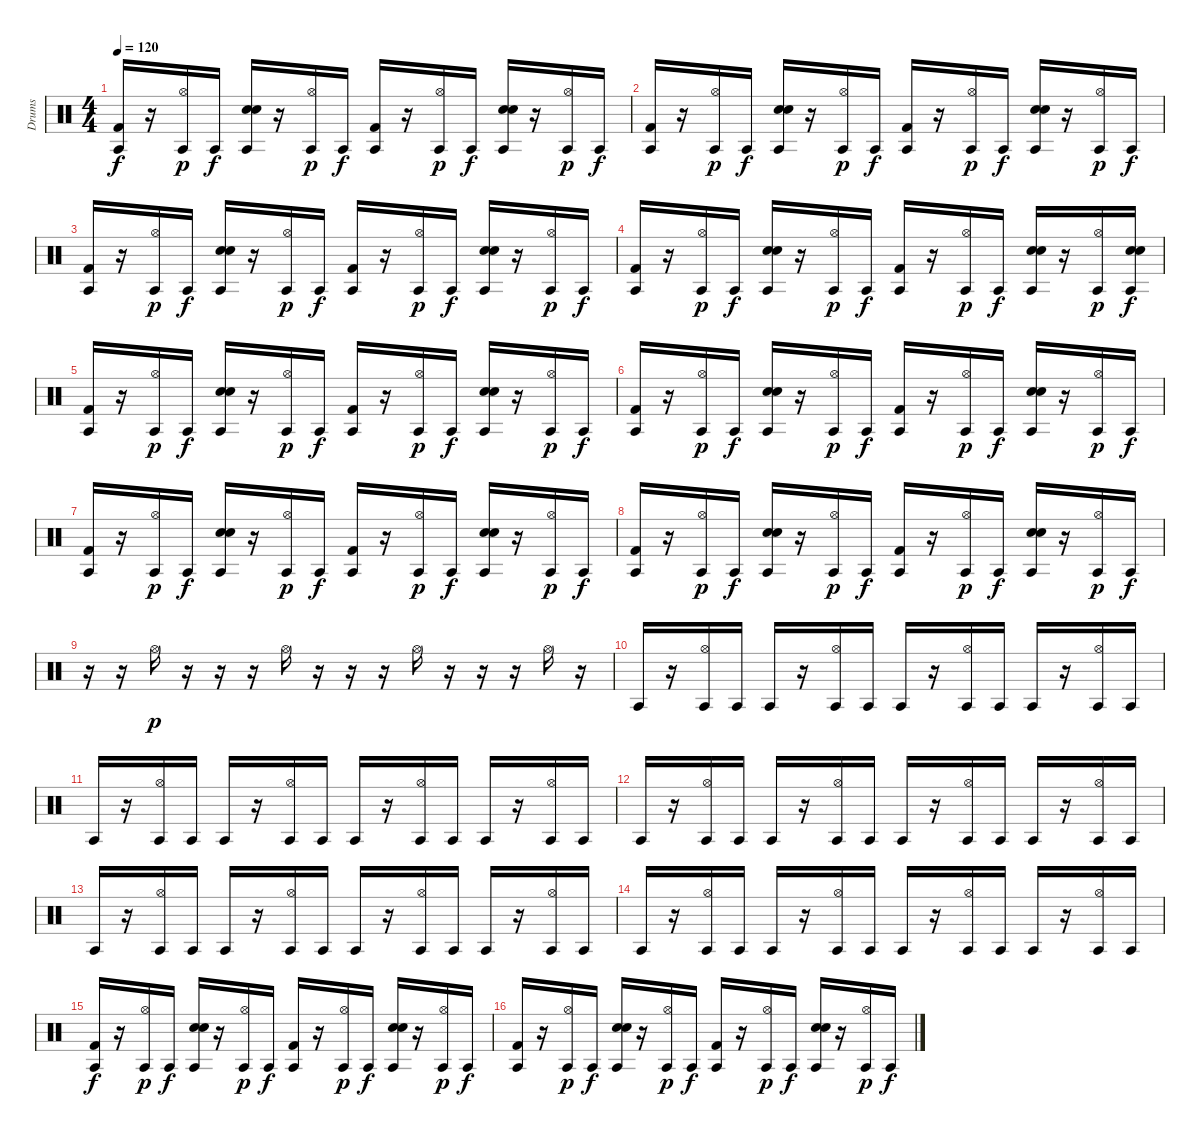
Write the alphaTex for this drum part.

\track ("Drums" "Drums") {instrument percussion}
\staff {score}
\articulation defaults
\ts (4 4)
\tempo 120
\clef neutral
\ks c
("Kick (hit) 2" "Agogo tow (hit)").16{dy f} r.16 ("Agogo tow (hit)" "Hi-Hat (open)").16{dy p} "Agogo tow (hit)".16{dy f} ("Snare (hit) 2" "Hand Clap (hit)" "Agogo tow (hit)").16 r.16 ("Agogo tow (hit)" "Hi-Hat (open)").16{dy p} "Agogo tow (hit)".16{dy f} ("Kick (hit) 2" "Agogo tow (hit)").16 r.16 ("Hi-Hat (open)" "Agogo tow (hit)").16{dy p} "Agogo tow (hit)".16{dy f} ("Snare (hit) 2" "Hand Clap (hit)" "Agogo tow (hit)").16 r.16 ("Hi-Hat (open)" "Agogo tow (hit)").16{dy p} "Agogo tow (hit)".16{dy f} |
("Kick (hit) 2" "Agogo tow (hit)").16 r.16 ("Agogo tow (hit)" "Hi-Hat (open)").16{dy p} "Agogo tow (hit)".16{dy f} ("Snare (hit) 2" "Hand Clap (hit)" "Agogo tow (hit)").16 r.16 ("Agogo tow (hit)" "Hi-Hat (open)").16{dy p} "Agogo tow (hit)".16{dy f} ("Kick (hit) 2" "Agogo tow (hit)").16 r.16 ("Hi-Hat (open)" "Agogo tow (hit)").16{dy p} "Agogo tow (hit)".16{dy f} ("Snare (hit) 2" "Hand Clap (hit)" "Agogo tow (hit)").16 r.16 ("Hi-Hat (open)" "Agogo tow (hit)").16{dy p} "Agogo tow (hit)".16{dy f} |
("Kick (hit) 2" "Agogo tow (hit)").16 r.16 ("Agogo tow (hit)" "Hi-Hat (open)").16{dy p} "Agogo tow (hit)".16{dy f} ("Snare (hit) 2" "Hand Clap (hit)" "Agogo tow (hit)").16 r.16 ("Agogo tow (hit)" "Hi-Hat (open)").16{dy p} "Agogo tow (hit)".16{dy f} ("Kick (hit) 2" "Agogo tow (hit)").16 r.16 ("Hi-Hat (open)" "Agogo tow (hit)").16{dy p} "Agogo tow (hit)".16{dy f} ("Snare (hit) 2" "Hand Clap (hit)" "Agogo tow (hit)").16 r.16 ("Hi-Hat (open)" "Agogo tow (hit)").16{dy p} "Agogo tow (hit)".16{dy f} |
("Kick (hit) 2" "Agogo tow (hit)").16 r.16 ("Agogo tow (hit)" "Hi-Hat (open)").16{dy p} "Agogo tow (hit)".16{dy f} ("Snare (hit) 2" "Hand Clap (hit)" "Agogo tow (hit)").16 r.16 ("Agogo tow (hit)" "Hi-Hat (open)").16{dy p} "Agogo tow (hit)".16{dy f} ("Kick (hit) 2" "Agogo tow (hit)").16 r.16 ("Hi-Hat (open)" "Agogo tow (hit)").16{dy p} "Agogo tow (hit)".16{dy f} ("Snare (hit) 2" "Hand Clap (hit)" "Agogo tow (hit)").16 r.16 ("Hi-Hat (open)" "Agogo tow (hit)").16{dy p} ("Snare (hit) 2" "Hand Clap (hit)" "Agogo tow (hit)").16{dy f} |
("Kick (hit) 2" "Agogo tow (hit)").16 r.16 ("Agogo tow (hit)" "Hi-Hat (open)").16{dy p} "Agogo tow (hit)".16{dy f} ("Snare (hit) 2" "Hand Clap (hit)" "Agogo tow (hit)").16 r.16 ("Agogo tow (hit)" "Hi-Hat (open)").16{dy p} "Agogo tow (hit)".16{dy f} ("Kick (hit) 2" "Agogo tow (hit)").16 r.16 ("Hi-Hat (open)" "Agogo tow (hit)").16{dy p} "Agogo tow (hit)".16{dy f} ("Snare (hit) 2" "Hand Clap (hit)" "Agogo tow (hit)").16 r.16 ("Hi-Hat (open)" "Agogo tow (hit)").16{dy p} "Agogo tow (hit)".16{dy f} |
("Kick (hit) 2" "Agogo tow (hit)").16 r.16 ("Agogo tow (hit)" "Hi-Hat (open)").16{dy p} "Agogo tow (hit)".16{dy f} ("Snare (hit) 2" "Hand Clap (hit)" "Agogo tow (hit)").16 r.16 ("Agogo tow (hit)" "Hi-Hat (open)").16{dy p} "Agogo tow (hit)".16{dy f} ("Kick (hit) 2" "Agogo tow (hit)").16 r.16 ("Hi-Hat (open)" "Agogo tow (hit)").16{dy p} "Agogo tow (hit)".16{dy f} ("Snare (hit) 2" "Hand Clap (hit)" "Agogo tow (hit)").16 r.16 ("Hi-Hat (open)" "Agogo tow (hit)").16{dy p} "Agogo tow (hit)".16{dy f} |
("Kick (hit) 2" "Agogo tow (hit)").16 r.16 ("Agogo tow (hit)" "Hi-Hat (open)").16{dy p} "Agogo tow (hit)".16{dy f} ("Snare (hit) 2" "Hand Clap (hit)" "Agogo tow (hit)").16 r.16 ("Agogo tow (hit)" "Hi-Hat (open)").16{dy p} "Agogo tow (hit)".16{dy f} ("Kick (hit) 2" "Agogo tow (hit)").16 r.16 ("Hi-Hat (open)" "Agogo tow (hit)").16{dy p} "Agogo tow (hit)".16{dy f} ("Snare (hit) 2" "Hand Clap (hit)" "Agogo tow (hit)").16 r.16 ("Hi-Hat (open)" "Agogo tow (hit)").16{dy p} "Agogo tow (hit)".16{dy f} |
("Kick (hit) 2" "Agogo tow (hit)").16 r.16 ("Agogo tow (hit)" "Hi-Hat (open)").16{dy p} "Agogo tow (hit)".16{dy f} ("Snare (hit) 2" "Hand Clap (hit)" "Agogo tow (hit)").16 r.16 ("Agogo tow (hit)" "Hi-Hat (open)").16{dy p} "Agogo tow (hit)".16{dy f} ("Kick (hit) 2" "Agogo tow (hit)").16 r.16 ("Hi-Hat (open)" "Agogo tow (hit)").16{dy p} "Agogo tow (hit)".16{dy f} ("Snare (hit) 2" "Hand Clap (hit)" "Agogo tow (hit)").16 r.16 ("Hi-Hat (open)" "Agogo tow (hit)").16{dy p} "Agogo tow (hit)".16{dy f} |
r.16 r.16 "Hi-Hat (open)".16{dy p} r.16 r.16 r.16 "Hi-Hat (open)".16 r.16 r.16 r.16 "Hi-Hat (open)".16 r.16 r.16 r.16 "Hi-Hat (open)".16 r.16 |
"Agogo tow (hit)".16 r.16 ("Hi-Hat (open)" "Agogo tow (hit)").16 "Agogo tow (hit)".16 "Agogo tow (hit)".16 r.16 ("Hi-Hat (open)" "Agogo tow (hit)").16 "Agogo tow (hit)".16 "Agogo tow (hit)".16 r.16 ("Hi-Hat (open)" "Agogo tow (hit)").16 "Agogo tow (hit)".16 "Agogo tow (hit)".16 r.16 ("Hi-Hat (open)" "Agogo tow (hit)").16 "Agogo tow (hit)".16 |
"Agogo tow (hit)".16 r.16 ("Hi-Hat (open)" "Agogo tow (hit)").16 "Agogo tow (hit)".16 "Agogo tow (hit)".16 r.16 ("Hi-Hat (open)" "Agogo tow (hit)").16 "Agogo tow (hit)".16 "Agogo tow (hit)".16 r.16 ("Hi-Hat (open)" "Agogo tow (hit)").16 "Agogo tow (hit)".16 "Agogo tow (hit)".16 r.16 ("Hi-Hat (open)" "Agogo tow (hit)").16 "Agogo tow (hit)".16 |
"Agogo tow (hit)".16 r.16 ("Hi-Hat (open)" "Agogo tow (hit)").16 "Agogo tow (hit)".16 "Agogo tow (hit)".16 r.16 ("Hi-Hat (open)" "Agogo tow (hit)").16 "Agogo tow (hit)".16 "Agogo tow (hit)".16 r.16 ("Hi-Hat (open)" "Agogo tow (hit)").16 "Agogo tow (hit)".16 "Agogo tow (hit)".16 r.16 ("Hi-Hat (open)" "Agogo tow (hit)").16 "Agogo tow (hit)".16 |
"Agogo tow (hit)".16 r.16 ("Hi-Hat (open)" "Agogo tow (hit)").16 "Agogo tow (hit)".16 "Agogo tow (hit)".16 r.16 ("Hi-Hat (open)" "Agogo tow (hit)").16 "Agogo tow (hit)".16 "Agogo tow (hit)".16 r.16 ("Hi-Hat (open)" "Agogo tow (hit)").16 "Agogo tow (hit)".16 "Agogo tow (hit)".16 r.16 ("Hi-Hat (open)" "Agogo tow (hit)").16 "Agogo tow (hit)".16 |
"Agogo tow (hit)".16 r.16 ("Hi-Hat (open)" "Agogo tow (hit)").16 "Agogo tow (hit)".16 "Agogo tow (hit)".16 r.16 ("Hi-Hat (open)" "Agogo tow (hit)").16 "Agogo tow (hit)".16 "Agogo tow (hit)".16 r.16 ("Hi-Hat (open)" "Agogo tow (hit)").16 "Agogo tow (hit)".16 "Agogo tow (hit)".16 r.16 ("Hi-Hat (open)" "Agogo tow (hit)").16 "Agogo tow (hit)".16 |
("Kick (hit) 2" "Agogo tow (hit)").16{dy f} r.16 ("Agogo tow (hit)" "Hi-Hat (open)").16{dy p} "Agogo tow (hit)".16{dy f} ("Snare (hit) 2" "Hand Clap (hit)" "Agogo tow (hit)").16 r.16 ("Agogo tow (hit)" "Hi-Hat (open)").16{dy p} "Agogo tow (hit)".16{dy f} ("Kick (hit) 2" "Agogo tow (hit)").16 r.16 ("Hi-Hat (open)" "Agogo tow (hit)").16{dy p} "Agogo tow (hit)".16{dy f} ("Snare (hit) 2" "Hand Clap (hit)" "Agogo tow (hit)").16 r.16 ("Hi-Hat (open)" "Agogo tow (hit)").16{dy p} "Agogo tow (hit)".16{dy f} |
("Kick (hit) 2" "Agogo tow (hit)").16 r.16 ("Agogo tow (hit)" "Hi-Hat (open)").16{dy p} "Agogo tow (hit)".16{dy f} ("Snare (hit) 2" "Hand Clap (hit)" "Agogo tow (hit)").16 r.16 ("Agogo tow (hit)" "Hi-Hat (open)").16{dy p} "Agogo tow (hit)".16{dy f} ("Kick (hit) 2" "Agogo tow (hit)").16 r.16 ("Hi-Hat (open)" "Agogo tow (hit)").16{dy p} "Agogo tow (hit)".16{dy f} ("Snare (hit) 2" "Hand Clap (hit)" "Agogo tow (hit)").16 r.16 ("Hi-Hat (open)" "Agogo tow (hit)").16{dy p} "Agogo tow (hit)".16{dy f}
